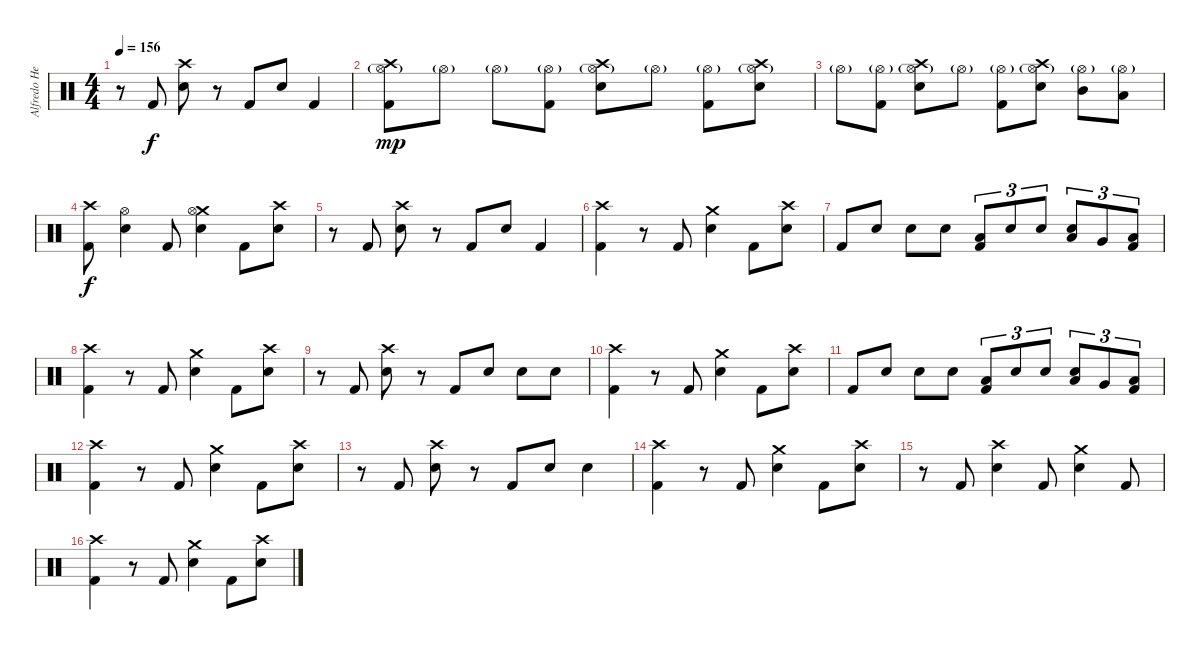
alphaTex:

\track ("Alfredo Hernández" "Alfredo He") {instrument percussion}
\staff {score}
\articulation defaults
\ts (4 4)
\tempo 156
\clef neutral
\ks c
r.8{dy f} "Kick (hit) 2".8 ("Crash high (hit)" "Electric Snare (hit)").8 r.8 "Kick (hit) 2".8 "Electric Snare (hit)".8 "Kick (hit) 2".4 |
("Crash high (hit)" "Hi-Hat (open)"{g} "Kick (hit) 2").8{dy mp} "Hi-Hat (open)"{g}.8 "Hi-Hat (open)"{g}.8 ("Hi-Hat (open)"{g} "Kick (hit) 2").8 ("Crash high (hit)" "Electric Snare (hit)" "Hi-Hat (open)"{g}).8 "Hi-Hat (open)"{g}.8 ("Hi-Hat (open)"{g} "Kick (hit) 2").8 ("Crash high (hit)" "Electric Snare (hit)" "Hi-Hat (open)"{g}).8 |
"Hi-Hat (open)"{g}.8 ("Hi-Hat (open)"{g} "Kick (hit) 2").8 ("Crash high (hit)" "Electric Snare (hit)" "Hi-Hat (open)"{g}).8 "Hi-Hat (open)"{g}.8 ("Hi-Hat (open)"{g} "Kick (hit) 2").8 ("Crash high (hit)" "Electric Snare (hit)" "Hi-Hat (open)"{g}).8 ("Mid Tom (hit)" "Hi-Hat (open)"{g}).8 ("Low Tom (hit)" "Hi-Hat (open)"{g}).8 |
("Crash high (hit)" "Kick (hit) 2").8{dy f} ("Electric Snare (hit)" "Hi-Hat (open)").4 "Kick (hit) 2".8 ("Electric Snare (hit)" "Crash medium (hit)" "Hi-Hat (open)").4 "Kick (hit) 2".8 ("Electric Snare (hit)" "Crash high (hit)").8 |
r.8 "Kick (hit) 2".8 ("Crash high (hit)" "Electric Snare (hit)").8 r.8 "Kick (hit) 2".8 "Electric Snare (hit)".8 "Kick (hit) 2".4 |
("Crash high (hit)" "Kick (hit) 2").4 r.8 "Kick (hit) 2".8 ("Electric Snare (hit)" "Crash medium (hit)").4 "Kick (hit) 2".8 ("Electric Snare (hit)" "Crash high (hit)").8 |
"Kick (hit) 2".8 "Electric Snare (hit)".8 "Electric Snare (hit)".8 "Electric Snare (hit)".8 ("Low Floor Tom (hit)" "Kick (hit) 2").8{tu (3 2)} "Electric Snare (hit)".8{tu (3 2)} "Electric Snare (hit)".8{tu (3 2)} ("Electric Snare (hit)" "Low Tom (hit)").8{tu (3 2)} "Very Low Tom (hit)".8{tu (3 2)} ("Low Floor Tom (hit)" "Kick (hit) 2").8{tu (3 2)} |
("Crash high (hit)" "Kick (hit) 2").4 r.8 "Kick (hit) 2".8 ("Electric Snare (hit)" "Crash medium (hit)").4 "Kick (hit) 2".8 ("Electric Snare (hit)" "Crash high (hit)").8 |
r.8 "Kick (hit) 2".8 ("Crash high (hit)" "Electric Snare (hit)").8 r.8 "Kick (hit) 2".8 "Electric Snare (hit)".8 "Electric Snare (hit)".8 "Electric Snare (hit)".8 |
("Crash high (hit)" "Kick (hit) 2").4 r.8 "Kick (hit) 2".8 ("Electric Snare (hit)" "Crash medium (hit)").4 "Kick (hit) 2".8 ("Electric Snare (hit)" "Crash high (hit)").8 |
"Kick (hit) 2".8 "Electric Snare (hit)".8 "Electric Snare (hit)".8 "Electric Snare (hit)".8 ("Low Floor Tom (hit)" "Kick (hit) 2").8{tu (3 2)} "Electric Snare (hit)".8{tu (3 2)} "Electric Snare (hit)".8{tu (3 2)} ("Electric Snare (hit)" "Low Tom (hit)").8{tu (3 2)} "Very Low Tom (hit)".8{tu (3 2)} ("Low Floor Tom (hit)" "Kick (hit) 2").8{tu (3 2)} |
("Crash high (hit)" "Kick (hit) 2").4 r.8 "Kick (hit) 2".8 ("Electric Snare (hit)" "Crash medium (hit)").4 "Kick (hit) 2".8 ("Electric Snare (hit)" "Crash high (hit)").8 |
r.8 "Kick (hit) 2".8 ("Crash high (hit)" "Electric Snare (hit)").8 r.8 "Kick (hit) 2".8 "Electric Snare (hit)".8 "Electric Snare (hit)".4 |
("Crash high (hit)" "Kick (hit) 2").4 r.8 "Kick (hit) 2".8 ("Electric Snare (hit)" "Crash medium (hit)").4 "Kick (hit) 2".8 ("Electric Snare (hit)" "Crash high (hit)").8 |
r.8 "Kick (hit) 2".8 ("Electric Snare (hit)" "Crash high (hit)").4 "Kick (hit) 2".8 ("Electric Snare (hit)" "Crash medium (hit)").4 "Kick (hit) 2".8 |
("Crash high (hit)" "Kick (hit) 2").4 r.8 "Kick (hit) 2".8 ("Electric Snare (hit)" "Crash medium (hit)").4 "Kick (hit) 2".8 ("Electric Snare (hit)" "Crash high (hit)").8
